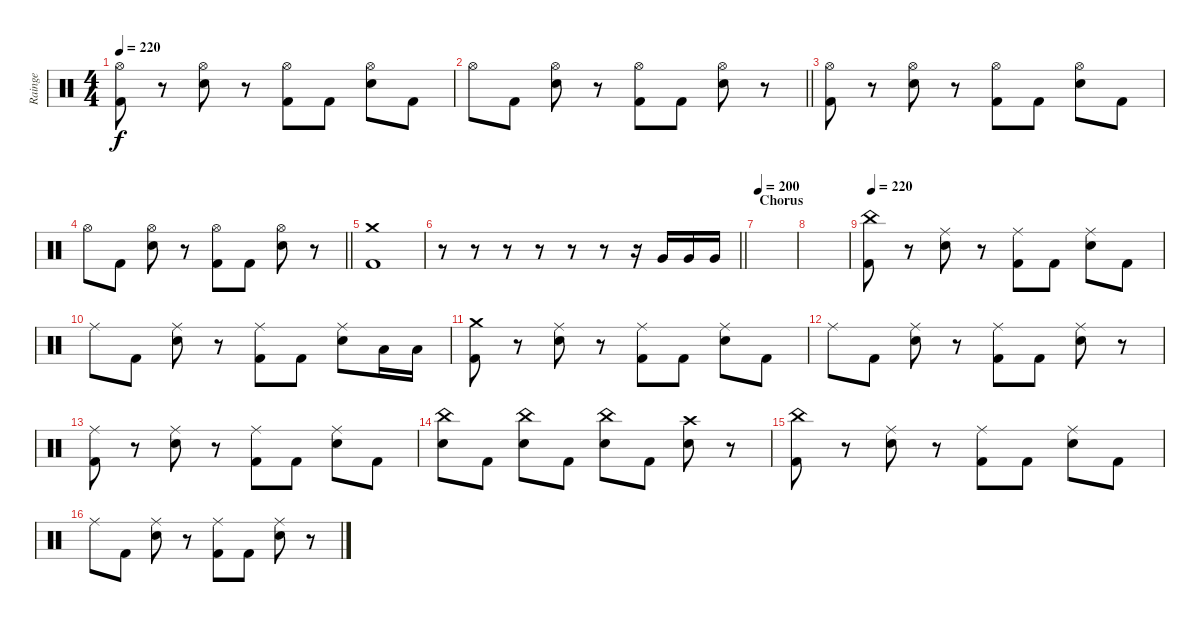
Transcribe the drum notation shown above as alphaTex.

\track ("Rainge" "Rainge") {instrument percussion}
\staff {score}
\articulation defaults
\ts (4 4)
\tempo 220
\clef neutral
\ks c
("Hi-Hat (open)" "Kick (hit) 2").8{dy f} r.8 ("Hi-Hat (open)" "Electric Snare (hit)").8 r.8 ("Hi-Hat (open)" "Kick (hit) 2").8 "Kick (hit) 2".8 ("Hi-Hat (open)" "Electric Snare (hit)").8 "Kick (hit) 2".8 |
\barLineRight lightlight "Hi-Hat (open)".8 "Kick (hit) 2".8
("Hi-Hat (open)" "Electric Snare (hit)").8 r.8 ("Hi-Hat (open)" "Kick (hit) 2").8 "Kick (hit) 2".8 ("Hi-Hat (open)" "Electric Snare (hit)").8 r.8 |
("Hi-Hat (open)" "Kick (hit) 2").8 r.8 ("Hi-Hat (open)" "Electric Snare (hit)").8 r.8 ("Hi-Hat (open)" "Kick (hit) 2").8 "Kick (hit) 2".8 ("Hi-Hat (open)" "Electric Snare (hit)").8 "Kick (hit) 2".8 |
\barLineRight lightlight "Hi-Hat (open)".8 "Kick (hit) 2".8
("Hi-Hat (open)" "Electric Snare (hit)").8 r.8 ("Hi-Hat (open)" "Kick (hit) 2").8 "Kick (hit) 2".8 ("Hi-Hat (open)" "Electric Snare (hit)").8 r.8 |
("Crash medium (hit)" "Kick (hit) 2").1 |
\barLineRight lightlight
r.8 r.8 r.8 r.8 r.8 r.8 r.16 "Very Low Tom (hit)".16 "Very Low Tom (hit)".16 "Very Low Tom (hit)".16 |
\section ("" "Chorus")
\tempo 200
|
|
\tempo 220
("China (hit)" "Kick (hit) 2").8 r.8 ("Ride (middle)" "Electric Snare (hit)").8 r.8 ("Ride (middle)" "Kick (hit) 2").8 "Kick (hit) 2".8 ("Ride (middle)" "Electric Snare (hit)").8 "Kick (hit) 2".8 |
"Ride (middle)".8 "Kick (hit) 2".8 ("Ride (middle)" "Electric Snare (hit)").8 r.8 ("Ride (middle)" "Kick (hit) 2").8 "Kick (hit) 2".8 ("Ride (middle)" "Electric Snare (hit)").8 "Low Tom (hit)".16 "Low Tom (hit)".16 |
("Crash medium (hit)" "Kick (hit) 2").8 r.8 ("Ride (middle)" "Electric Snare (hit)").8 r.8 ("Ride (middle)" "Kick (hit) 2").8 "Kick (hit) 2".8 ("Ride (middle)" "Electric Snare (hit)").8 "Kick (hit) 2".8 |
"Ride (middle)".8 "Kick (hit) 2".8 ("Ride (middle)" "Electric Snare (hit)").8 r.8 ("Ride (middle)" "Kick (hit) 2").8 "Kick (hit) 2".8 ("Ride (middle)" "Electric Snare (hit)").8 r.8 |
("Ride (middle)" "Kick (hit) 2").8 r.8 ("Ride (middle)" "Electric Snare (hit)").8 r.8 ("Ride (middle)" "Kick (hit) 2").8 "Kick (hit) 2".8 ("Ride (middle)" "Electric Snare (hit)").8 "Kick (hit) 2".8 |
("China (hit)" "Electric Snare (hit)").8 "Kick (hit) 2".8 ("China (hit)" "Electric Snare (hit)").8 "Kick (hit) 2".8 ("China (hit)" "Electric Snare (hit)").8 "Kick (hit) 2".8 ("Crash high (hit)" "Electric Snare (hit)").8 r.8 |
("China (hit)" "Kick (hit) 2").8 r.8 ("Ride (middle)" "Electric Snare (hit)").8 r.8 ("Ride (middle)" "Kick (hit) 2").8 "Kick (hit) 2".8 ("Ride (middle)" "Electric Snare (hit)").8 "Kick (hit) 2".8 |
"Ride (middle)".8 "Kick (hit) 2".8 ("Ride (middle)" "Electric Snare (hit)").8 r.8 ("Ride (middle)" "Kick (hit) 2").8 "Kick (hit) 2".8 ("Ride (middle)" "Electric Snare (hit)").8 r.8
